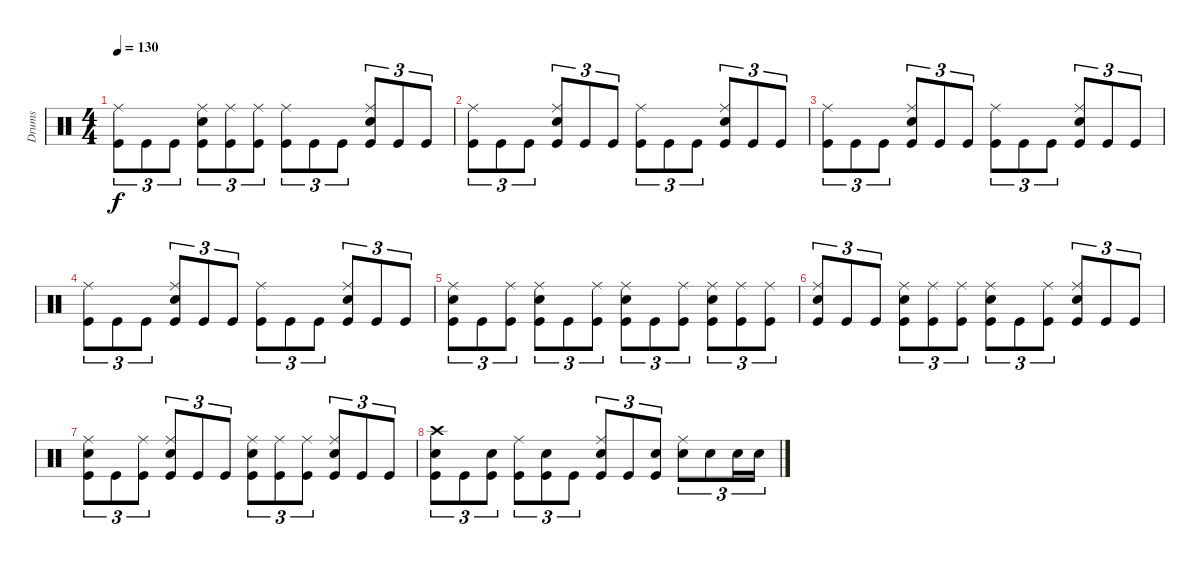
\track ("Drums" "Drums") {instrument percussion}
\staff {score}
\articulation defaults
\ts (4 4)
\tempo 130
\clef neutral
\ks c
("Kick (hit)" "Ride (middle)").8{tu (3 2) dy f} "Kick (hit)".8{tu (3 2)} "Kick (hit)".8{tu (3 2)} ("Kick (hit)" "Snare (hit) 2" "Ride (middle)").8{tu (3 2)} ("Kick (hit)" "Ride (middle)").8{tu (3 2)} ("Kick (hit)" "Ride (middle)").8{tu (3 2)} ("Kick (hit)" "Ride (middle)").8{tu (3 2)} "Kick (hit)".8{tu (3 2)} "Kick (hit)".8{tu (3 2)} ("Kick (hit)" "Snare (hit) 2" "Ride (middle)").8{tu (3 2)} "Kick (hit)".8{tu (3 2)} "Kick (hit)".8{tu (3 2)} |
("Kick (hit)" "Ride (middle)").8{tu (3 2)} "Kick (hit)".8{tu (3 2)} "Kick (hit)".8{tu (3 2)} ("Kick (hit)" "Snare (hit) 2" "Ride (middle)").8{tu (3 2)} "Kick (hit)".8{tu (3 2)} "Kick (hit)".8{tu (3 2)} ("Kick (hit)" "Ride (middle)").8{tu (3 2)} "Kick (hit)".8{tu (3 2)} "Kick (hit)".8{tu (3 2)} ("Kick (hit)" "Snare (hit) 2" "Ride (middle)").8{tu (3 2)} "Kick (hit)".8{tu (3 2)} "Kick (hit)".8{tu (3 2)} |
("Kick (hit)" "Ride (middle)").8{tu (3 2)} "Kick (hit)".8{tu (3 2)} "Kick (hit)".8{tu (3 2)} ("Kick (hit)" "Snare (hit) 2" "Ride (middle)").8{tu (3 2)} "Kick (hit)".8{tu (3 2)} "Kick (hit)".8{tu (3 2)} ("Kick (hit)" "Ride (middle)").8{tu (3 2)} "Kick (hit)".8{tu (3 2)} "Kick (hit)".8{tu (3 2)} ("Kick (hit)" "Snare (hit) 2" "Ride (middle)").8{tu (3 2)} "Kick (hit)".8{tu (3 2)} "Kick (hit)".8{tu (3 2)} |
("Kick (hit)" "Ride (middle)").8{tu (3 2)} "Kick (hit)".8{tu (3 2)} "Kick (hit)".8{tu (3 2)} ("Kick (hit)" "Snare (hit) 2" "Ride (middle)").8{tu (3 2)} "Kick (hit)".8{tu (3 2)} "Kick (hit)".8{tu (3 2)} ("Kick (hit)" "Ride (middle)").8{tu (3 2)} "Kick (hit)".8{tu (3 2)} "Kick (hit)".8{tu (3 2)} ("Kick (hit)" "Snare (hit) 2" "Ride (middle)").8{tu (3 2)} "Kick (hit)".8{tu (3 2)} "Kick (hit)".8{tu (3 2)} |
("Kick (hit)" "Snare (hit) 2" "Ride (middle)").8{tu (3 2)} "Kick (hit)".8{tu (3 2)} ("Kick (hit)" "Ride (middle)").8{tu (3 2)} ("Kick (hit)" "Snare (hit) 2" "Ride (middle)").8{tu (3 2)} "Kick (hit)".8{tu (3 2)} ("Kick (hit)" "Ride (middle)").8{tu (3 2)} ("Kick (hit)" "Snare (hit) 2" "Ride (middle)").8{tu (3 2)} "Kick (hit)".8{tu (3 2)} ("Kick (hit)" "Ride (middle)").8{tu (3 2)} ("Kick (hit)" "Snare (hit) 2" "Ride (middle)").8{tu (3 2)} ("Kick (hit)" "Ride (middle)").8{tu (3 2)} ("Kick (hit)" "Ride (middle)").8{tu (3 2)} |
("Kick (hit)" "Snare (hit) 2" "Ride (middle)").8{tu (3 2)} "Kick (hit)".8{tu (3 2)} "Kick (hit)".8{tu (3 2)} ("Kick (hit)" "Snare (hit) 2" "Ride (middle)").8{tu (3 2)} ("Kick (hit)" "Ride (middle)").8{tu (3 2)} ("Kick (hit)" "Ride (middle)").8{tu (3 2)} ("Kick (hit)" "Snare (hit) 2" "Ride (middle)").8{tu (3 2)} "Kick (hit)".8{tu (3 2)} ("Kick (hit)" "Ride (middle)").8{tu (3 2)} ("Kick (hit)" "Snare (hit) 2" "Ride (middle)").8{tu (3 2)} "Kick (hit)".8{tu (3 2)} "Kick (hit)".8{tu (3 2)} |
("Kick (hit)" "Snare (hit) 2" "Ride (middle)").8{tu (3 2)} "Kick (hit)".8{tu (3 2)} ("Kick (hit)" "Ride (middle)").8{tu (3 2)} ("Kick (hit)" "Snare (hit) 2" "Ride (middle)").8{tu (3 2)} "Kick (hit)".8{tu (3 2)} "Kick (hit)".8{tu (3 2)} ("Kick (hit)" "Snare (hit) 2" "Ride (middle)").8{tu (3 2)} ("Kick (hit)" "Ride (middle)").8{tu (3 2)} ("Kick (hit)" "Ride (middle)").8{tu (3 2)} ("Kick (hit)" "Snare (hit) 2" "Ride (middle)").8{tu (3 2)} "Kick (hit)".8{tu (3 2)} "Kick (hit)".8{tu (3 2)} |
("Kick (hit)" "Snare (hit) 2" "Crash high (hit)").8{tu (3 2)} "Kick (hit)".8{tu (3 2)} ("Kick (hit)" "Snare (hit) 2").8{tu (3 2)} ("Kick (hit)" "Ride (middle)").8{tu (3 2)} ("Kick (hit)" "Snare (hit) 2").8{tu (3 2)} "Kick (hit)".8{tu (3 2)} ("Kick (hit)" "Snare (hit) 2" "Ride (middle)").8{tu (3 2)} "Kick (hit)".8{tu (3 2)} ("Kick (hit)" "Snare (hit) 2").8{tu (3 2)} ("Snare (hit) 2" "Ride (middle)").8{tu (3 2)} "Snare (hit) 2".8{tu (3 2)} "Snare (hit) 2".16{tu (3 2)} "Snare (hit) 2".16{tu (3 2)}
